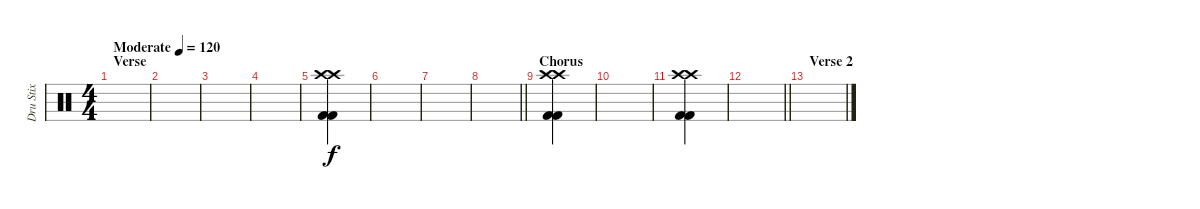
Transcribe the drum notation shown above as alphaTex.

\track ("Dru Stix" "Dru Stix") {instrument percussion}
\staff {score}
\articulation defaults
\ts (4 4)
\section ("" "Verse")
\tempo (120 "Moderate")
\clef neutral
\ks c
|
|
|
|
("Crash high (hit)" "Crash high (hit)" "Kick (hit) 2" "Kick (hit) 2").4 |
|
|
\barLineRight lightlight
|
\section ("" "Chorus")
("Crash high (hit)" "Crash high (hit)" "Kick (hit) 2" "Kick (hit) 2").4 |
|
("Crash high (hit)" "Crash high (hit)" "Kick (hit) 2" "Kick (hit) 2").4 |
\barLineRight lightlight
|
\section ("" "Verse 2")
